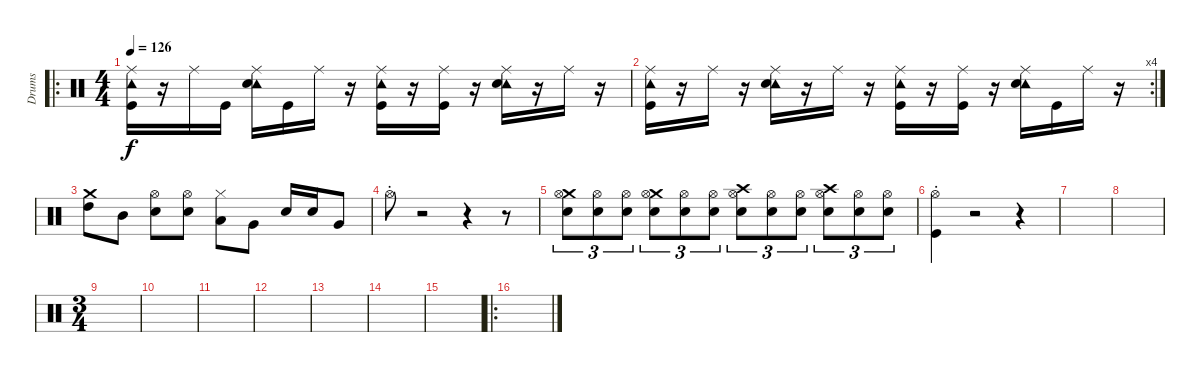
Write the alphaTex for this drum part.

\track ("Drums" "Drums") {instrument percussion}
\staff {score}
\articulation defaults
\ro
\ts (4 4)
\tempo 126
\clef neutral
\ks c
("Tambourine (hit)" "Ride (middle)" "Kick (hit)").16{dy f} r.16 "Ride (middle)".16 "Kick (hit)".16 ("Tambourine (hit)" "Ride (middle)" "Snare (hit) 2").16 "Kick (hit)".16 "Ride (middle)".16 r.16 ("Tambourine (hit)" "Ride (middle)" "Kick (hit)").16 r.16 ("Ride (middle)" "Kick (hit)").16 r.16 ("Tambourine (hit)" "Ride (middle)" "Snare (hit) 2").16 r.16 "Ride (middle)".16 r.16 |
\rc 4
("Tambourine (hit)" "Ride (middle)" "Kick (hit)").16 r.16 "Ride (middle)".16 r.16 ("Tambourine (hit)" "Ride (middle)" "Snare (hit) 2").16 r.16 "Ride (middle)".16 r.16 ("Tambourine (hit)" "Ride (middle)" "Kick (hit)").16 r.16 ("Ride (middle)" "Kick (hit)").16 r.16 ("Tambourine (hit)" "Ride (middle)" "Snare (hit) 2").16 "Kick (hit)".16 "Ride (middle)".16 r.16 |
("Crash medium (hit)" "High Tom (hit)").8 "Mid Tom (hit)".8 ("Hi-Hat (open)" "Snare (hit) 2").8 ("Hi-Hat (open)" "Snare (hit) 2").8 ("Hi-Hat (closed)" "Low Tom (hit)").8 "Very Low Tom (hit)".8 "Snare (hit) 2".16 "Snare (hit) 2".16 "Very Low Tom (hit)".8 |
"Hi-Hat (open)"{st}.8 r.2 r.4 r.8 |
("Crash medium (hit)" "Hi-Hat (open)" "Snare (hit) 2").8{tu (3 2)} ("Hi-Hat (open)" "Snare (hit) 2").8{tu (3 2)} ("Hi-Hat (open)" "Snare (hit) 2").8{tu (3 2)} ("Crash medium (hit)" "Hi-Hat (open)" "Snare (hit) 2").8{tu (3 2)} ("Hi-Hat (open)" "Snare (hit) 2").8{tu (3 2)} ("Hi-Hat (open)" "Snare (hit) 2").8{tu (3 2)} ("Crash high (hit)" "Hi-Hat (open)" "Snare (hit) 2").8{tu (3 2)} ("Hi-Hat (open)" "Snare (hit) 2").8{tu (3 2)} ("Hi-Hat (open)" "Snare (hit) 2").8{tu (3 2)} ("Crash high (hit)" "Hi-Hat (open)" "Snare (hit) 2").8{tu (3 2)} ("Hi-Hat (open)" "Snare (hit) 2").8{tu (3 2)} ("Hi-Hat (open)" "Snare (hit) 2").8{tu (3 2)} |
("Hi-Hat (open)"{st} "Kick (hit)").4 r.2 r.4 |
|
|
\ts (3 4)
|
|
|
|
|
|
|
\ro
